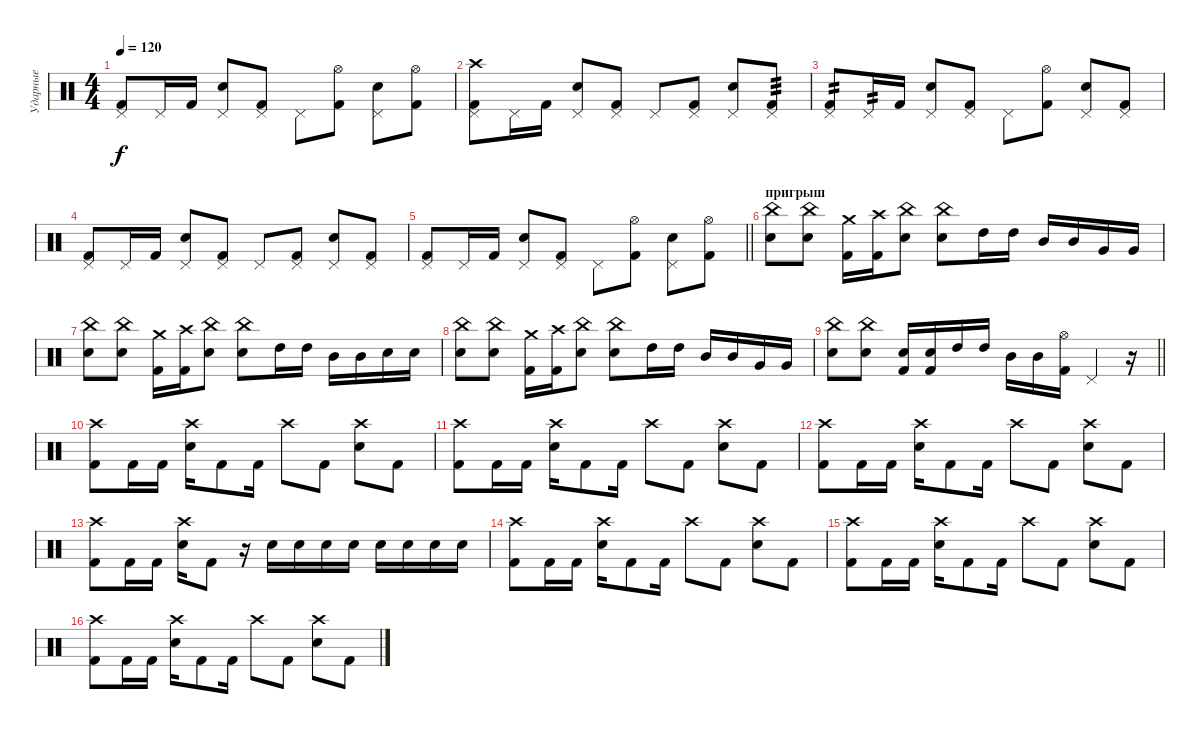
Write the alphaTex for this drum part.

\track ("Ударные" "Ударные") {instrument percussion}
\staff {score}
\articulation defaults
\ts (4 4)
\tempo 120
\clef neutral
\ks c
("Pedal Hi-Hat (hit)" "Kick (hit) 2").8{dy f} "Pedal Hi-Hat (hit)".16 "Kick (hit) 2".16 ("Pedal Hi-Hat (hit)" "Electric Snare (hit)").8 ("Pedal Hi-Hat (hit)" "Kick (hit) 2").8 "Pedal Hi-Hat (hit)".8 ("Hi-Hat (open)" "Kick (hit) 2").8 ("Pedal Hi-Hat (hit)" "Electric Snare (hit)").8 ("Hi-Hat (open)" "Kick (hit) 2").8 |
("Crash high (hit)" "Pedal Hi-Hat (hit)" "Kick (hit) 2").8 "Pedal Hi-Hat (hit)".16 "Kick (hit) 2".16 ("Pedal Hi-Hat (hit)" "Electric Snare (hit)").8 ("Pedal Hi-Hat (hit)" "Kick (hit) 2").8 "Pedal Hi-Hat (hit)".8 ("Pedal Hi-Hat (hit)" "Kick (hit) 2").8 ("Pedal Hi-Hat (hit)" "Electric Snare (hit)").8 ("Pedal Hi-Hat (hit)" "Kick (hit) 2").8{tp 3} |
("Pedal Hi-Hat (hit)" "Kick (hit) 2").8{tp 2} "Pedal Hi-Hat (hit)".16{tp 2} "Kick (hit) 2".16 ("Pedal Hi-Hat (hit)" "Electric Snare (hit)").8 ("Pedal Hi-Hat (hit)" "Kick (hit) 2").8 "Pedal Hi-Hat (hit)".8 ("Hi-Hat (open)" "Kick (hit) 2").8 ("Pedal Hi-Hat (hit)" "Electric Snare (hit)").8 ("Pedal Hi-Hat (hit)" "Kick (hit) 2").8 |
("Pedal Hi-Hat (hit)" "Kick (hit) 2").8 "Pedal Hi-Hat (hit)".16 "Kick (hit) 2".16 ("Pedal Hi-Hat (hit)" "Electric Snare (hit)").8 ("Pedal Hi-Hat (hit)" "Kick (hit) 2").8 "Pedal Hi-Hat (hit)".8 ("Pedal Hi-Hat (hit)" "Kick (hit) 2").8 ("Pedal Hi-Hat (hit)" "Electric Snare (hit)").8 ("Pedal Hi-Hat (hit)" "Kick (hit) 2").8 |
\barLineRight lightlight
("Pedal Hi-Hat (hit)" "Kick (hit) 2").8 "Pedal Hi-Hat (hit)".16 "Kick (hit) 2".16 ("Pedal Hi-Hat (hit)" "Electric Snare (hit)").8 ("Pedal Hi-Hat (hit)" "Kick (hit) 2").8 "Pedal Hi-Hat (hit)".8 ("Hi-Hat (open)" "Kick (hit) 2").8 ("Pedal Hi-Hat (hit)" "Electric Snare (hit)").8 ("Hi-Hat (open)" "Kick (hit) 2").8 |
\section ("" "пригрыш")
("China (hit)" "Electric Snare (hit)").8 ("China (hit)" "Electric Snare (hit)").8 ("Crash medium (hit)" "Kick (hit) 2").16 ("Crash high (hit)" "Kick (hit) 2").16 ("China (hit)" "Electric Snare (hit)").8 ("China (hit)" "Electric Snare (hit)").8 "High Tom (hit)".16 "High Tom (hit)".16 "Mid Tom (hit)".16 "Mid Tom (hit)".16 "Very Low Tom (hit)".16 "Very Low Tom (hit)".16 |
("China (hit)" "Electric Snare (hit)").8 ("China (hit)" "Electric Snare (hit)").8 ("Crash medium (hit)" "Kick (hit) 2").16 ("Crash high (hit)" "Kick (hit) 2").16 ("China (hit)" "Electric Snare (hit)").8 ("China (hit)" "Electric Snare (hit)").8 "High Tom (hit)".16 "High Tom (hit)".16 "Mid Tom (hit)".16 "Mid Tom (hit)".16 "Electric Snare (hit)".16 "Electric Snare (hit)".16 |
("China (hit)" "Electric Snare (hit)").8 ("China (hit)" "Electric Snare (hit)").8 ("Crash medium (hit)" "Kick (hit) 2").16 ("Crash high (hit)" "Kick (hit) 2").16 ("China (hit)" "Electric Snare (hit)").8 ("China (hit)" "Electric Snare (hit)").8 "High Tom (hit)".16 "High Tom (hit)".16 "Mid Tom (hit)".16 "Mid Tom (hit)".16 "Very Low Tom (hit)".16 "Very Low Tom (hit)".16 |
\barLineRight lightlight
("China (hit)" "Electric Snare (hit)").8 ("China (hit)" "Electric Snare (hit)").8 ("Electric Snare (hit)" "Kick (hit) 2").16 ("Electric Snare (hit)" "Kick (hit) 2").16 "High Tom (hit)".16 "High Tom (hit)".16 "Mid Tom (hit)".16 "Mid Tom (hit)".16 ("Hi-Hat (open)" "Kick (hit) 2").16 "Pedal Hi-Hat (hit)".4 r.16 |
("Crash high (hit)" "Kick (hit) 2").8 "Kick (hit) 2".16 "Kick (hit) 2".16 ("Crash high (hit)" "Electric Snare (hit)").16 "Kick (hit) 2".8 "Kick (hit) 2".16 "Crash high (hit)".8 "Kick (hit) 2".8 ("Crash high (hit)" "Electric Snare (hit)").8 "Kick (hit) 2".8 |
("Crash high (hit)" "Kick (hit) 2").8 "Kick (hit) 2".16 "Kick (hit) 2".16 ("Crash high (hit)" "Electric Snare (hit)").16 "Kick (hit) 2".8 "Kick (hit) 2".16 "Crash high (hit)".8 "Kick (hit) 2".8 ("Crash high (hit)" "Electric Snare (hit)").8 "Kick (hit) 2".8 |
("Crash high (hit)" "Kick (hit) 2").8 "Kick (hit) 2".16 "Kick (hit) 2".16 ("Crash high (hit)" "Electric Snare (hit)").16 "Kick (hit) 2".8 "Kick (hit) 2".16 "Crash high (hit)".8 "Kick (hit) 2".8 ("Crash high (hit)" "Electric Snare (hit)").8 "Kick (hit) 2".8 |
("Crash high (hit)" "Kick (hit) 2").8 "Kick (hit) 2".16 "Kick (hit) 2".16 ("Crash high (hit)" "Electric Snare (hit)").16 "Kick (hit) 2".8 r.16 "Electric Snare (hit)".16 "Electric Snare (hit)".16 "Electric Snare (hit)".16 "Electric Snare (hit)".16 "Electric Snare (hit)".16 "Electric Snare (hit)".16 "Electric Snare (hit)".16 "Electric Snare (hit)".16 |
("Crash high (hit)" "Kick (hit) 2").8 "Kick (hit) 2".16 "Kick (hit) 2".16 ("Crash high (hit)" "Electric Snare (hit)").16 "Kick (hit) 2".8 "Kick (hit) 2".16 "Crash high (hit)".8 "Kick (hit) 2".8 ("Crash high (hit)" "Electric Snare (hit)").8 "Kick (hit) 2".8 |
("Crash high (hit)" "Kick (hit) 2").8 "Kick (hit) 2".16 "Kick (hit) 2".16 ("Crash high (hit)" "Electric Snare (hit)").16 "Kick (hit) 2".8 "Kick (hit) 2".16 "Crash high (hit)".8 "Kick (hit) 2".8 ("Crash high (hit)" "Electric Snare (hit)").8 "Kick (hit) 2".8 |
("Crash high (hit)" "Kick (hit) 2").8 "Kick (hit) 2".16 "Kick (hit) 2".16 ("Crash high (hit)" "Electric Snare (hit)").16 "Kick (hit) 2".8 "Kick (hit) 2".16 "Crash high (hit)".8 "Kick (hit) 2".8 ("Crash high (hit)" "Electric Snare (hit)").8 "Kick (hit) 2".8
